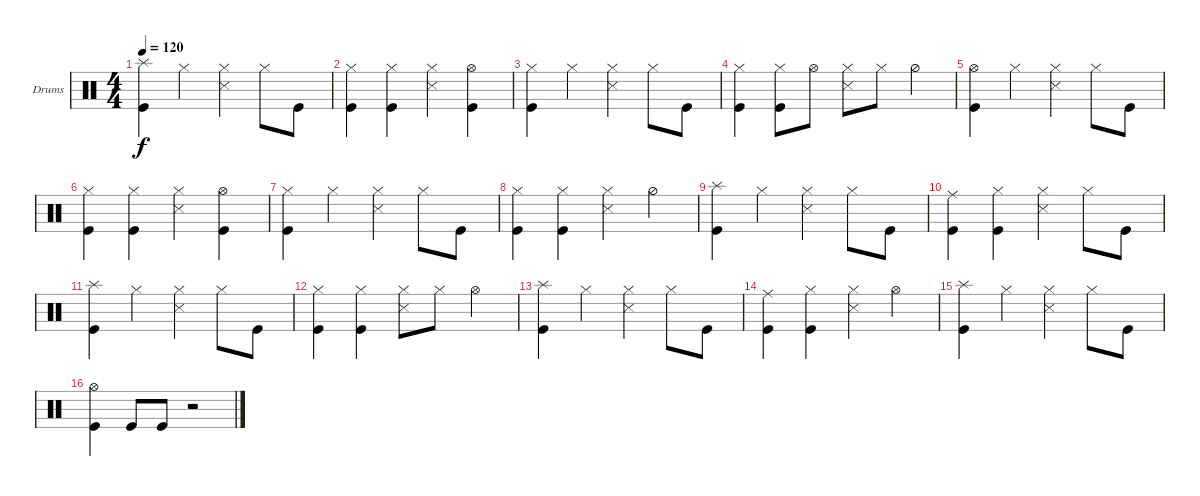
\bracketExtendMode groupsimilarinstruments
\firstSystemTrackNameOrientation horizontal
\otherSystemsTrackNameOrientation horizontal
\track ("Drumkit" "Drums") {instrument percussion}
\staff {score}
\articulation defaults
\ts (4 4)
\tempo 120
\clef neutral
\scale
0.333333
\ks c
("Kick (hit)" "Splash (hit)").4{dy f} "Hi-Hat (closed)".4 ("Snare (side stick) 3" "Hi-Hat (closed)").4 "Hi-Hat (closed)".8 "Kick (hit)".8 |
\scale
0.333333 ("Kick (hit)" "Hi-Hat (closed)").4 ("Hi-Hat (closed)" "Kick (hit)").4 ("Snare (side stick) 3" "Hi-Hat (closed)").4 ("Kick (hit)" "Hi-Hat (open)").4 |
\scale
0.333333 ("Kick (hit)" "Hi-Hat (closed)").4 "Hi-Hat (closed)".4 ("Hi-Hat (closed)" "Snare (side stick) 3").4 "Hi-Hat (closed)".8 "Kick (hit)".8 |
\scale
0.333333 ("Kick (hit)" "Hi-Hat (closed)").4 ("Hi-Hat (closed)" "Kick (hit)").8 "Hi-Hat (open)".8 ("Hi-Hat (closed)" "Snare (side stick) 3").8 "Hi-Hat (closed)".8 "Hi-Hat (half)".4 |
\scale
0.333333 ("Kick (hit)" "Hi-Hat (open)").4 "Hi-Hat (closed)".4 ("Snare (side stick) 3" "Hi-Hat (closed)").4 "Hi-Hat (closed)".8 "Kick (hit)".8 |
\scale
0.333333 ("Kick (hit)" "Hi-Hat (closed)").4 ("Hi-Hat (closed)" "Kick (hit)").4 ("Snare (side stick) 3" "Hi-Hat (closed)").4 ("Kick (hit)" "Hi-Hat (open)").4 |
\scale
0.333333 ("Kick (hit)" "Hi-Hat (closed)").4 "Hi-Hat (closed)".4 ("Hi-Hat (closed)" "Snare (side stick) 3").4 "Hi-Hat (closed)".8 "Kick (hit)".8 |
\scale
0.333333 ("Kick (hit)" "Hi-Hat (closed)").4 ("Hi-Hat (closed)" "Kick (hit)").4 ("Hi-Hat (closed)" "Snare (side stick) 3").4 "Hi-Hat (half)".4 |
\scale
0.333333 ("Kick (hit)" "Splash (hit)").4 "Hi-Hat (closed)".4 ("Hi-Hat (closed)" "Snare (side stick) 3").4 "Hi-Hat (closed)".8 "Kick (hit)".8 |
\scale
0.333333 ("Kick (hit)" "Ride (middle)").4 ("Hi-Hat (closed)" "Kick (hit)").4 ("Hi-Hat (closed)" "Snare (side stick) 3").4 "Hi-Hat (closed)".8 "Kick (hit)".8 |
\scale
0.333333 ("Kick (hit)" "Splash (hit)").4 "Hi-Hat (closed)".4 ("Hi-Hat (closed)" "Snare (side stick) 3").4 "Hi-Hat (closed)".8 "Kick (hit)".8 |
\scale
0.333333 ("Kick (hit)" "Hi-Hat (closed)").4 ("Hi-Hat (closed)" "Kick (hit)").4 ("Hi-Hat (closed)" "Snare (side stick) 3").8 "Hi-Hat (closed)".8 "Hi-Hat (open)".4 |
\scale
0.333333 ("Kick (hit)" "Splash (hit)").4 "Hi-Hat (closed)".4 ("Hi-Hat (closed)" "Snare (side stick) 3").4 "Hi-Hat (closed)".8 "Kick (hit)".8 |
\scale
0.333333 ("Kick (hit)" "Ride (middle)").4 ("Hi-Hat (closed)" "Kick (hit)").4 ("Hi-Hat (closed)" "Snare (side stick) 3").4 "Hi-Hat (open)".4 |
\scale
0.333333 ("Kick (hit)" "Splash (hit)").4 "Hi-Hat (closed)".4 ("Hi-Hat (closed)" "Snare (side stick) 3").4 "Hi-Hat (closed)".8 "Kick (hit)".8 |
\scale
0.333333 ("Kick (hit)" "Hi-Hat (open)").4 "Kick (hit)".8 "Kick (hit)".8 r.2
